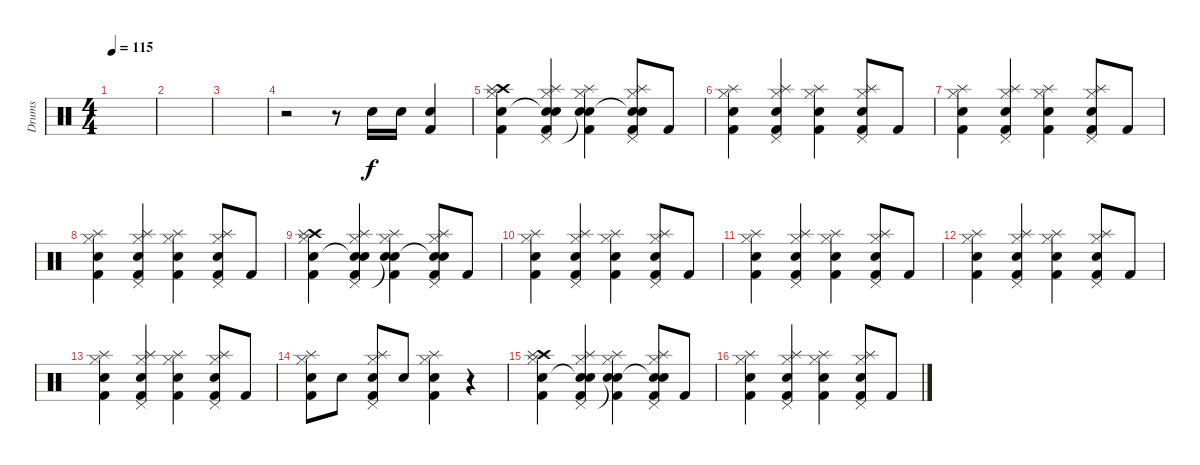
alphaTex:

\track ("Drums" "Drums") {instrument percussion}
\staff {score}
\articulation defaults
\ts (4 4)
\tempo 115
\clef neutral
\ks c
|
|
|
r.2 r.8 "Electric Snare (hit)".16 "Snare (hit) 2".16 ("Snare (hit) 2" "Kick (hit) 2").4 |
("Hi-Hat (closed)" "Crash high (hit)" "Snare (hit) 2" "Splash (hit)" "Kick (hit) 2").4 ("Hi-Hat (closed)" "Pedal Hi-Hat (hit)" "Snare (hit)"{t} "Electric Snare (hit)" "Splash (hit)" "Kick (hit) 2").4 ("Hi-Hat (closed)" "Snare (hit)"{t} "Snare (hit) 2" "Splash (hit)" "Kick (hit) 2").4 ("Hi-Hat (closed)" "Pedal Hi-Hat (hit)" "Snare (hit)"{t} "Electric Snare (hit)" "Splash (hit)" "Kick (hit) 2").8 "Kick (hit) 2".8 |
("Hi-Hat (closed)" "Snare (hit) 2" "Splash (hit)" "Kick (hit) 2").4 ("Hi-Hat (closed)" "Pedal Hi-Hat (hit)" "Electric Snare (hit)" "Splash (hit)" "Kick (hit) 2").4 ("Hi-Hat (closed)" "Snare (hit) 2" "Splash (hit)" "Kick (hit) 2").4 ("Hi-Hat (closed)" "Pedal Hi-Hat (hit)" "Electric Snare (hit)" "Splash (hit)" "Kick (hit) 2").8 "Kick (hit) 2".8 |
("Hi-Hat (closed)" "Snare (hit) 2" "Splash (hit)" "Kick (hit) 2").4 ("Hi-Hat (closed)" "Pedal Hi-Hat (hit)" "Electric Snare (hit)" "Splash (hit)" "Kick (hit) 2").4 ("Hi-Hat (closed)" "Snare (hit) 2" "Splash (hit)" "Kick (hit) 2").4 ("Hi-Hat (closed)" "Pedal Hi-Hat (hit)" "Electric Snare (hit)" "Splash (hit)" "Kick (hit) 2").8 "Kick (hit) 2".8 |
("Hi-Hat (closed)" "Snare (hit) 2" "Splash (hit)" "Kick (hit) 2").4 ("Hi-Hat (closed)" "Pedal Hi-Hat (hit)" "Electric Snare (hit)" "Splash (hit)" "Kick (hit) 2").4 ("Hi-Hat (closed)" "Snare (hit) 2" "Splash (hit)" "Kick (hit) 2").4 ("Hi-Hat (closed)" "Pedal Hi-Hat (hit)" "Electric Snare (hit)" "Splash (hit)" "Kick (hit) 2").8 "Kick (hit) 2".8 |
("Hi-Hat (closed)" "Crash high (hit)" "Snare (hit) 2" "Splash (hit)" "Kick (hit) 2").4 ("Hi-Hat (closed)" "Pedal Hi-Hat (hit)" "Snare (hit)"{t} "Electric Snare (hit)" "Splash (hit)" "Kick (hit) 2").4 ("Hi-Hat (closed)" "Snare (hit)"{t} "Snare (hit) 2" "Splash (hit)" "Kick (hit) 2").4 ("Hi-Hat (closed)" "Pedal Hi-Hat (hit)" "Snare (hit)"{t} "Electric Snare (hit)" "Splash (hit)" "Kick (hit) 2").8 "Kick (hit) 2".8 |
("Hi-Hat (closed)" "Snare (hit) 2" "Splash (hit)" "Kick (hit) 2").4 ("Hi-Hat (closed)" "Pedal Hi-Hat (hit)" "Electric Snare (hit)" "Splash (hit)" "Kick (hit) 2").4 ("Hi-Hat (closed)" "Snare (hit) 2" "Splash (hit)" "Kick (hit) 2").4 ("Hi-Hat (closed)" "Pedal Hi-Hat (hit)" "Electric Snare (hit)" "Splash (hit)" "Kick (hit) 2").8 "Kick (hit) 2".8 |
("Hi-Hat (closed)" "Snare (hit) 2" "Splash (hit)" "Kick (hit) 2").4 ("Hi-Hat (closed)" "Pedal Hi-Hat (hit)" "Electric Snare (hit)" "Splash (hit)" "Kick (hit) 2").4 ("Hi-Hat (closed)" "Snare (hit) 2" "Splash (hit)" "Kick (hit) 2").4 ("Hi-Hat (closed)" "Pedal Hi-Hat (hit)" "Electric Snare (hit)" "Splash (hit)" "Kick (hit) 2").8 "Kick (hit) 2".8 |
("Hi-Hat (closed)" "Snare (hit) 2" "Splash (hit)" "Kick (hit) 2").4 ("Hi-Hat (closed)" "Pedal Hi-Hat (hit)" "Electric Snare (hit)" "Splash (hit)" "Kick (hit) 2").4 ("Hi-Hat (closed)" "Snare (hit) 2" "Splash (hit)" "Kick (hit) 2").4 ("Hi-Hat (closed)" "Pedal Hi-Hat (hit)" "Electric Snare (hit)" "Splash (hit)" "Kick (hit) 2").8 "Kick (hit) 2".8 |
("Hi-Hat (closed)" "Snare (hit) 2" "Splash (hit)" "Kick (hit) 2").4 ("Hi-Hat (closed)" "Pedal Hi-Hat (hit)" "Electric Snare (hit)" "Splash (hit)" "Kick (hit) 2").4 ("Hi-Hat (closed)" "Snare (hit) 2" "Splash (hit)" "Kick (hit) 2").4 ("Hi-Hat (closed)" "Pedal Hi-Hat (hit)" "Electric Snare (hit)" "Splash (hit)" "Kick (hit) 2").8 "Kick (hit) 2".8 |
("Hi-Hat (closed)" "Snare (hit) 2" "Splash (hit)" "Kick (hit) 2").8 "Snare (hit) 2".8 ("Hi-Hat (closed)" "Pedal Hi-Hat (hit)" "Electric Snare (hit)" "Splash (hit)" "Kick (hit) 2").8 "Snare (hit) 2".8 ("Hi-Hat (closed)" "Snare (hit) 2" "Splash (hit)" "Kick (hit) 2").4 r.4 |
("Hi-Hat (closed)" "Crash high (hit)" "Snare (hit) 2" "Splash (hit)" "Kick (hit) 2").4 ("Hi-Hat (closed)" "Pedal Hi-Hat (hit)" "Snare (hit)"{t} "Electric Snare (hit)" "Splash (hit)" "Kick (hit) 2").4 ("Hi-Hat (closed)" "Snare (hit)"{t} "Snare (hit) 2" "Splash (hit)" "Kick (hit) 2").4 ("Hi-Hat (closed)" "Pedal Hi-Hat (hit)" "Snare (hit)"{t} "Electric Snare (hit)" "Splash (hit)" "Kick (hit) 2").8 "Kick (hit) 2".8 |
("Hi-Hat (closed)" "Snare (hit) 2" "Splash (hit)" "Kick (hit) 2").4 ("Hi-Hat (closed)" "Pedal Hi-Hat (hit)" "Electric Snare (hit)" "Splash (hit)" "Kick (hit) 2").4 ("Hi-Hat (closed)" "Snare (hit) 2" "Splash (hit)" "Kick (hit) 2").4 ("Hi-Hat (closed)" "Pedal Hi-Hat (hit)" "Electric Snare (hit)" "Splash (hit)" "Kick (hit) 2").8 "Kick (hit) 2".8
